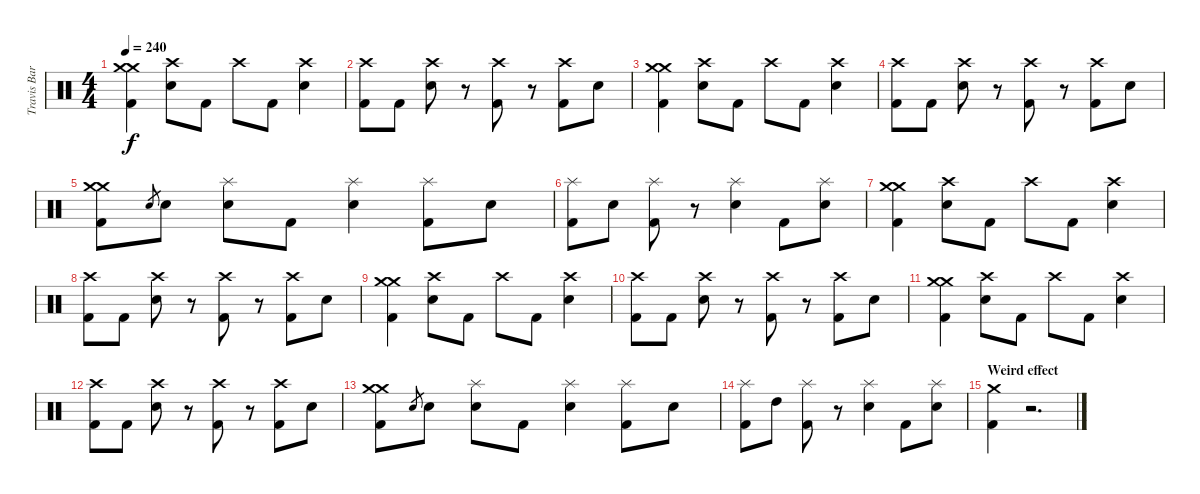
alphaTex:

\track ("Travis Barker - Drums" "Travis Bar") {instrument percussion}
\staff {score}
\articulation defaults
\ts (4 4)
\tempo 240
\clef neutral
\ks c
("Crash medium (hit)" "Crash medium (hit)" "Kick (hit) 2").4{dy f} ("Crash high (hit)" "Electric Snare (hit)").8 "Kick (hit) 2".8 "Crash high (hit)".8 "Kick (hit) 2".8 ("Crash high (hit)" "Electric Snare (hit)").4 |
("Crash high (hit)" "Kick (hit) 2").8 "Kick (hit) 2".8 ("Crash high (hit)" "Electric Snare (hit)").8 r.8 ("Crash high (hit)" "Kick (hit) 2").8 r.8 ("Crash high (hit)" "Kick (hit) 2").8 "Electric Snare (hit)".8 |
("Crash medium (hit)" "Crash medium (hit)" "Kick (hit) 2").4 ("Crash high (hit)" "Electric Snare (hit)").8 "Kick (hit) 2".8 "Crash high (hit)".8 "Kick (hit) 2".8 ("Crash high (hit)" "Electric Snare (hit)").4 |
("Crash high (hit)" "Kick (hit) 2").8 "Kick (hit) 2".8 ("Crash high (hit)" "Electric Snare (hit)").8 r.8 ("Crash high (hit)" "Kick (hit) 2").8 r.8 ("Crash high (hit)" "Kick (hit) 2").8 "Electric Snare (hit)".8 |
("Crash medium (hit)" "Crash medium (hit)" "Kick (hit) 2").8 "Electric Snare (hit)".8{gr} "Electric Snare (hit)".8 ("Splash (hit)" "Electric Snare (hit)").8 "Kick (hit) 2".8 ("Splash (hit)" "Electric Snare (hit)").4 ("Splash (hit)" "Kick (hit) 2").8 "Electric Snare (hit)".8 |
("Splash (hit)" "Kick (hit) 2").8 "Electric Snare (hit)".8 ("Splash (hit)" "Kick (hit) 2").8 r.8 ("Splash (hit)" "Electric Snare (hit)").4 "Kick (hit) 2".8 ("Splash (hit)" "Electric Snare (hit)").8 |
("Crash medium (hit)" "Crash medium (hit)" "Kick (hit) 2").4 ("Crash high (hit)" "Electric Snare (hit)").8 "Kick (hit) 2".8 "Crash high (hit)".8 "Kick (hit) 2".8 ("Crash high (hit)" "Electric Snare (hit)").4 |
("Crash high (hit)" "Kick (hit) 2").8 "Kick (hit) 2".8 ("Crash high (hit)" "Electric Snare (hit)").8 r.8 ("Crash high (hit)" "Kick (hit) 2").8 r.8 ("Crash high (hit)" "Kick (hit) 2").8 "Electric Snare (hit)".8 |
("Crash medium (hit)" "Crash medium (hit)" "Kick (hit) 2").4 ("Crash high (hit)" "Electric Snare (hit)").8 "Kick (hit) 2".8 "Crash high (hit)".8 "Kick (hit) 2".8 ("Crash high (hit)" "Electric Snare (hit)").4 |
("Crash high (hit)" "Kick (hit) 2").8 "Kick (hit) 2".8 ("Crash high (hit)" "Electric Snare (hit)").8 r.8 ("Crash high (hit)" "Kick (hit) 2").8 r.8 ("Crash high (hit)" "Kick (hit) 2").8 "Electric Snare (hit)".8 |
("Crash medium (hit)" "Crash medium (hit)" "Kick (hit) 2").4 ("Crash high (hit)" "Electric Snare (hit)").8 "Kick (hit) 2".8 "Crash high (hit)".8 "Kick (hit) 2".8 ("Crash high (hit)" "Electric Snare (hit)").4 |
("Crash high (hit)" "Kick (hit) 2").8 "Kick (hit) 2".8 ("Crash high (hit)" "Electric Snare (hit)").8 r.8 ("Crash high (hit)" "Kick (hit) 2").8 r.8 ("Crash high (hit)" "Kick (hit) 2").8 "Electric Snare (hit)".8 |
("Crash medium (hit)" "Crash medium (hit)" "Kick (hit) 2").8 "Electric Snare (hit)".8{gr} "Electric Snare (hit)".8 ("Splash (hit)" "Electric Snare (hit)").8 "Kick (hit) 2".8 ("Splash (hit)" "Electric Snare (hit)").4 ("Splash (hit)" "Kick (hit) 2").8 "Electric Snare (hit)".8 |
("Splash (hit)" "Kick (hit) 2").8 "High Tom (hit)".8 ("Splash (hit)" "Kick (hit) 2").8 r.8 ("Splash (hit)" "Electric Snare (hit)").4 "Kick (hit) 2".8 ("Splash (hit)" "Electric Snare (hit)").8 |
\section ("" "Weird effect")
("Crash medium (hit)" "Kick (hit) 2").4 r.2{d}
